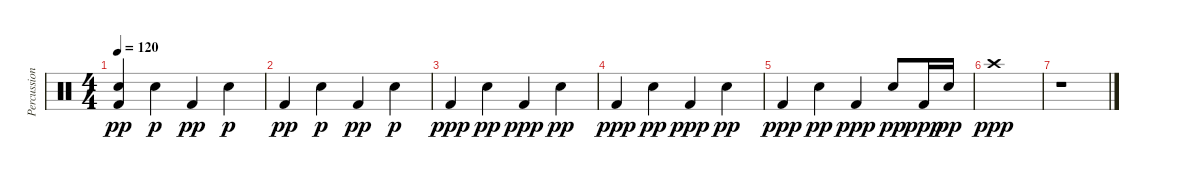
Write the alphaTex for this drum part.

\track ("Percussion" "Percussion") {instrument percussion}
\staff {score}
\articulation defaults
\ts (4 4)
\tempo 120
\clef neutral
\ks c
("Snare (hit)"{t} "Kick (hit) 2").4{dy pp} "Electric Snare (hit)".4{dy p} "Kick (hit) 2".4{dy pp} "Electric Snare (hit)".4{dy p} |
"Kick (hit) 2".4{dy pp} "Electric Snare (hit)".4{dy p} "Kick (hit) 2".4{dy pp} "Electric Snare (hit)".4{dy p} |
"Kick (hit) 2".4{dy ppp} "Electric Snare (hit)".4{dy pp} "Kick (hit) 2".4{dy ppp} "Electric Snare (hit)".4{dy pp} |
"Kick (hit) 2".4{dy ppp} "Electric Snare (hit)".4{dy pp} "Kick (hit) 2".4{dy ppp} "Electric Snare (hit)".4{dy pp} |
"Kick (hit) 2".4{dy ppp} "Electric Snare (hit)".4{dy pp} "Kick (hit) 2".4{dy ppp} "Electric Snare (hit)".8{dy pp} "Kick (hit) 2".16{dy ppp} "Electric Snare (hit)".16{dy pp} |
"Crash high (hit)".1{dy ppp} |
r.1
